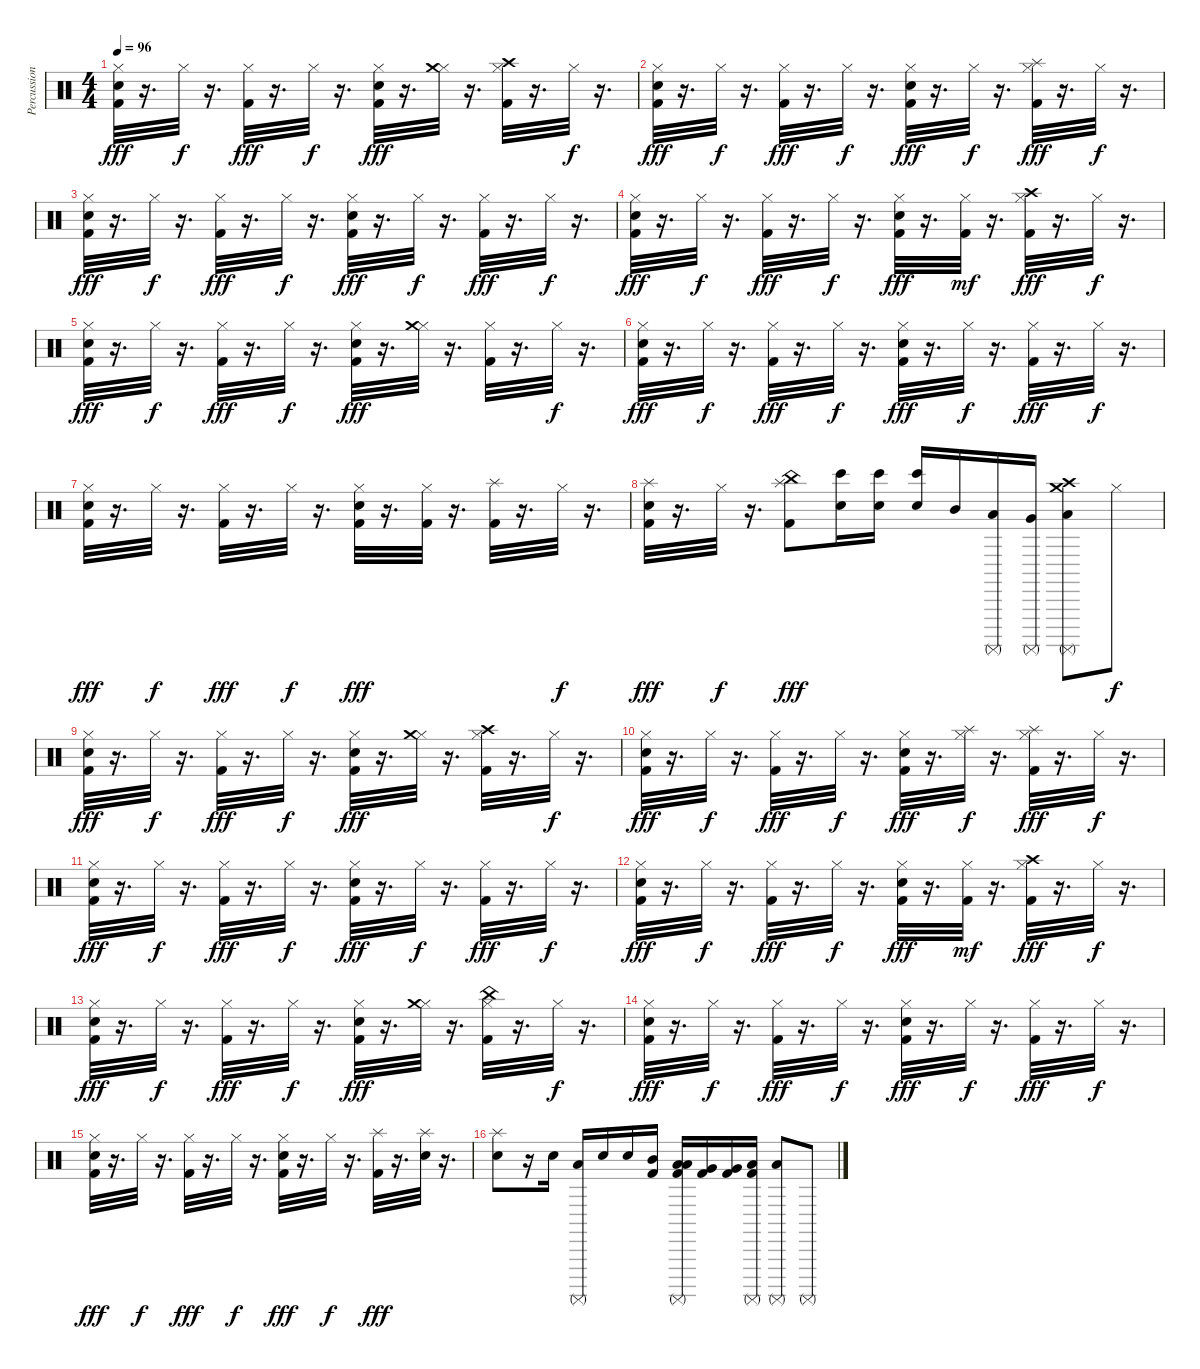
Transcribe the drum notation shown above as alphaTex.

\track ("Percussion" "Percussion") {instrument percussion}
\staff {score}
\articulation defaults
\ts (4 4)
\tempo 96
\clef neutral
\ks c
("Hi-Hat (closed)" "Kick (hit) 2" "Snare (hit) 2").32{dy fff} r.16{d} "Hi-Hat (closed)".32{dy f} r.16{d} ("Hi-Hat (closed)" "Kick (hit) 2").32{dy fff} r.16{d} "Hi-Hat (closed)".32{dy f} r.16{d} ("Hi-Hat (closed)" "Kick (hit) 2" "Snare (hit) 2").32{dy fff} r.16{d} ("Hi-Hat (closed)" "Crash medium (hit)").32 r.16{d} ("Hi-Hat (closed)" "Kick (hit) 2" "Crash high (hit)").32 r.16{d} "Hi-Hat (closed)".32{dy f} r.16{d} |
("Hi-Hat (closed)" "Kick (hit) 2" "Snare (hit) 2").32{dy fff} r.16{d} "Hi-Hat (closed)".32{dy f} r.16{d} ("Hi-Hat (closed)" "Kick (hit) 2").32{dy fff} r.16{d} "Hi-Hat (closed)".32{dy f} r.16{d} ("Hi-Hat (closed)" "Kick (hit) 2" "Snare (hit) 2").32{dy fff} r.16{d} "Hi-Hat (closed)".32{dy f} r.16{d} ("Hi-Hat (closed)" "Kick (hit) 2" "Splash (hit)").32{dy fff} r.16{d} "Hi-Hat (closed)".32{dy f} r.16{d} |
("Hi-Hat (closed)" "Kick (hit) 2" "Snare (hit) 2").32{dy fff} r.16{d} "Hi-Hat (closed)".32{dy f} r.16{d} ("Hi-Hat (closed)" "Kick (hit) 2").32{dy fff} r.16{d} "Hi-Hat (closed)".32{dy f} r.16{d} ("Hi-Hat (closed)" "Kick (hit) 2" "Snare (hit) 2").32{dy fff} r.16{d} "Hi-Hat (closed)".32{dy f} r.16{d} ("Hi-Hat (closed)" "Kick (hit) 2").32{dy fff} r.16{d} "Hi-Hat (closed)".32{dy f} r.16{d} |
("Hi-Hat (closed)" "Kick (hit) 2" "Snare (hit) 2").32{dy fff} r.16{d} "Hi-Hat (closed)".32{dy f} r.16{d} ("Hi-Hat (closed)" "Kick (hit) 2").32{dy fff} r.16{d} "Hi-Hat (closed)".32{dy f} r.16{d} ("Hi-Hat (closed)" "Kick (hit) 2" "Snare (hit) 2").32{dy fff} r.16{d} ("Hi-Hat (closed)" "Kick (hit) 2").32{dy mf} r.16{d} ("Hi-Hat (closed)" "Kick (hit) 2" "Crash high (hit)").32{dy fff} r.16{d} "Hi-Hat (closed)".32{dy f} r.16{d} |
("Hi-Hat (closed)" "Kick (hit) 2" "Snare (hit) 2").32{dy fff} r.16{d} "Hi-Hat (closed)".32{dy f} r.16{d} ("Hi-Hat (closed)" "Kick (hit) 2").32{dy fff} r.16{d} "Hi-Hat (closed)".32{dy f} r.16{d} ("Hi-Hat (closed)" "Kick (hit) 2" "Snare (hit) 2").32{dy fff} r.16{d} ("Hi-Hat (closed)" "Crash medium (hit)").32 r.16{d} ("Hi-Hat (closed)" "Kick (hit) 2").32 r.16{d} "Hi-Hat (closed)".32{dy f} r.16{d} |
("Hi-Hat (closed)" "Kick (hit) 2" "Snare (hit) 2").32{dy fff} r.16{d} "Hi-Hat (closed)".32{dy f} r.16{d} ("Hi-Hat (closed)" "Kick (hit) 2").32{dy fff} r.16{d} "Hi-Hat (closed)".32{dy f} r.16{d} ("Hi-Hat (closed)" "Kick (hit) 2" "Snare (hit) 2").32{dy fff} r.16{d} "Hi-Hat (closed)".32{dy f} r.16{d} ("Hi-Hat (closed)" "Kick (hit) 2").32{dy fff} r.16{d} "Hi-Hat (closed)".32{dy f} r.16{d} |
("Hi-Hat (closed)" "Kick (hit) 2" "Snare (hit) 2").32{dy fff} r.16{d} "Hi-Hat (closed)".32{dy f} r.16{d} ("Hi-Hat (closed)" "Kick (hit) 2").32{dy fff} r.16{d} "Hi-Hat (closed)".32{dy f} r.16{d} ("Hi-Hat (closed)" "Kick (hit) 2" "Snare (hit) 2").32{dy fff} r.16{d} ("Hi-Hat (closed)" "Kick (hit) 2").32 r.16{d} ("Splash (hit)" "Kick (hit) 2").32 r.16{d} "Hi-Hat (closed)".32{dy f} r.16{d} |
("Splash (hit)" "Kick (hit) 2" "Snare (hit) 2").32{dy fff} r.16{d} "Hi-Hat (closed)".32{dy f} r.16{d} ("Splash (hit)" "China (hit)" "Kick (hit) 2").8{dy fff} ("Bongo High (hit)" "Snare (hit) 2").16 ("Bongo High (hit)" "Snare (hit) 2").16 ("Bongo High (hit)" "Snare (hit) 2").16 "Mid Tom (hit)".16 ("Surdo (mute)" "Low Tom (hit)").16 ("Surdo (mute)" "Very Low Tom (hit)").16 ("Surdo (mute)" "Low Floor Tom (hit)" "Crash high (hit)" "Crash medium (hit)").8 "Hi-Hat (closed)".8{dy f} |
("Hi-Hat (closed)" "Kick (hit) 2" "Snare (hit) 2").32{dy fff} r.16{d} "Hi-Hat (closed)".32{dy f} r.16{d} ("Hi-Hat (closed)" "Kick (hit) 2").32{dy fff} r.16{d} "Hi-Hat (closed)".32{dy f} r.16{d} ("Hi-Hat (closed)" "Kick (hit) 2" "Snare (hit) 2").32{dy fff} r.16{d} ("Hi-Hat (closed)" "Crash medium (hit)").32 r.16{d} ("Hi-Hat (closed)" "Kick (hit) 2" "Crash high (hit)").32 r.16{d} "Hi-Hat (closed)".32{dy f} r.16{d} |
("Hi-Hat (closed)" "Kick (hit) 2" "Snare (hit) 2").32{dy fff} r.16{d} "Hi-Hat (closed)".32{dy f} r.16{d} ("Hi-Hat (closed)" "Kick (hit) 2").32{dy fff} r.16{d} "Hi-Hat (closed)".32{dy f} r.16{d} ("Hi-Hat (closed)" "Kick (hit) 2" "Snare (hit) 2").32{dy fff} r.16{d} ("Hi-Hat (closed)" "Splash (hit)").32{dy f} r.16{d} ("Hi-Hat (closed)" "Kick (hit) 2" "Splash (hit)").32{dy fff} r.16{d} "Hi-Hat (closed)".32{dy f} r.16{d} |
("Hi-Hat (closed)" "Kick (hit) 2" "Snare (hit) 2").32{dy fff} r.16{d} "Hi-Hat (closed)".32{dy f} r.16{d} ("Hi-Hat (closed)" "Kick (hit) 2").32{dy fff} r.16{d} "Hi-Hat (closed)".32{dy f} r.16{d} ("Hi-Hat (closed)" "Kick (hit) 2" "Snare (hit) 2").32{dy fff} r.16{d} "Hi-Hat (closed)".32{dy f} r.16{d} ("Hi-Hat (closed)" "Kick (hit) 2").32{dy fff} r.16{d} "Hi-Hat (closed)".32{dy f} r.16{d} |
("Hi-Hat (closed)" "Kick (hit) 2" "Snare (hit) 2").32{dy fff} r.16{d} "Hi-Hat (closed)".32{dy f} r.16{d} ("Hi-Hat (closed)" "Kick (hit) 2").32{dy fff} r.16{d} "Hi-Hat (closed)".32{dy f} r.16{d} ("Hi-Hat (closed)" "Kick (hit) 2" "Snare (hit) 2").32{dy fff} r.16{d} ("Hi-Hat (closed)" "Kick (hit) 2").32{dy mf} r.16{d} ("Hi-Hat (closed)" "Kick (hit) 2" "Crash high (hit)").32{dy fff} r.16{d} "Hi-Hat (closed)".32{dy f} r.16{d} |
("Hi-Hat (closed)" "Kick (hit) 2" "Snare (hit) 2").32{dy fff} r.16{d} "Hi-Hat (closed)".32{dy f} r.16{d} ("Hi-Hat (closed)" "Kick (hit) 2").32{dy fff} r.16{d} "Hi-Hat (closed)".32{dy f} r.16{d} ("Hi-Hat (closed)" "Kick (hit) 2" "Snare (hit) 2").32{dy fff} r.16{d} ("Hi-Hat (closed)" "Crash medium (hit)").32 r.16{d} ("Hi-Hat (closed)" "Kick (hit) 2" "China (hit)").32 r.16{d} "Hi-Hat (closed)".32{dy f} r.16{d} |
("Hi-Hat (closed)" "Kick (hit) 2" "Snare (hit) 2").32{dy fff} r.16{d} "Hi-Hat (closed)".32{dy f} r.16{d} ("Hi-Hat (closed)" "Kick (hit) 2").32{dy fff} r.16{d} "Hi-Hat (closed)".32{dy f} r.16{d} ("Hi-Hat (closed)" "Kick (hit) 2" "Snare (hit) 2").32{dy fff} r.16{d} "Hi-Hat (closed)".32{dy f} r.16{d} ("Hi-Hat (closed)" "Kick (hit) 2").32{dy fff} r.16{d} "Hi-Hat (closed)".32{dy f} r.16{d} |
("Hi-Hat (closed)" "Kick (hit) 2" "Snare (hit) 2").32{dy fff} r.16{d} "Hi-Hat (closed)".32{dy f} r.16{d} ("Hi-Hat (closed)" "Kick (hit) 2").32{dy fff} r.16{d} "Hi-Hat (closed)".32{dy f} r.16{d} ("Hi-Hat (closed)" "Kick (hit) 2" "Snare (hit) 2").32{dy fff} r.16{d} "Hi-Hat (closed)".32{dy f} r.16{d} ("Splash (hit)" "Kick (hit) 2").32{dy fff} r.16{d} ("Splash (hit)" "Snare (hit) 2").32 r.16{d} |
("Splash (hit)" "Snare (hit) 2").8 r.16 "Snare (hit) 2".16 ("Low Tom (hit)" "Surdo (mute)").16 "Snare (hit) 2".16 "Snare (hit) 2".16 ("Kick (hit) 2" "Mid Tom (hit)").16 ("Kick (hit) 2" "Low Tom (hit)" "Surdo (mute)" "Low Floor Tom (hit)").16 ("Kick (hit) 2" "Very Low Tom (hit)").16 ("Kick (hit) 2" "Very Low Tom (hit)").16 ("Kick (hit) 2" "Low Floor Tom (hit)" "Surdo (mute)").16 ("Low Floor Tom (hit)" "Surdo (mute)").8 "Surdo (mute)".8
